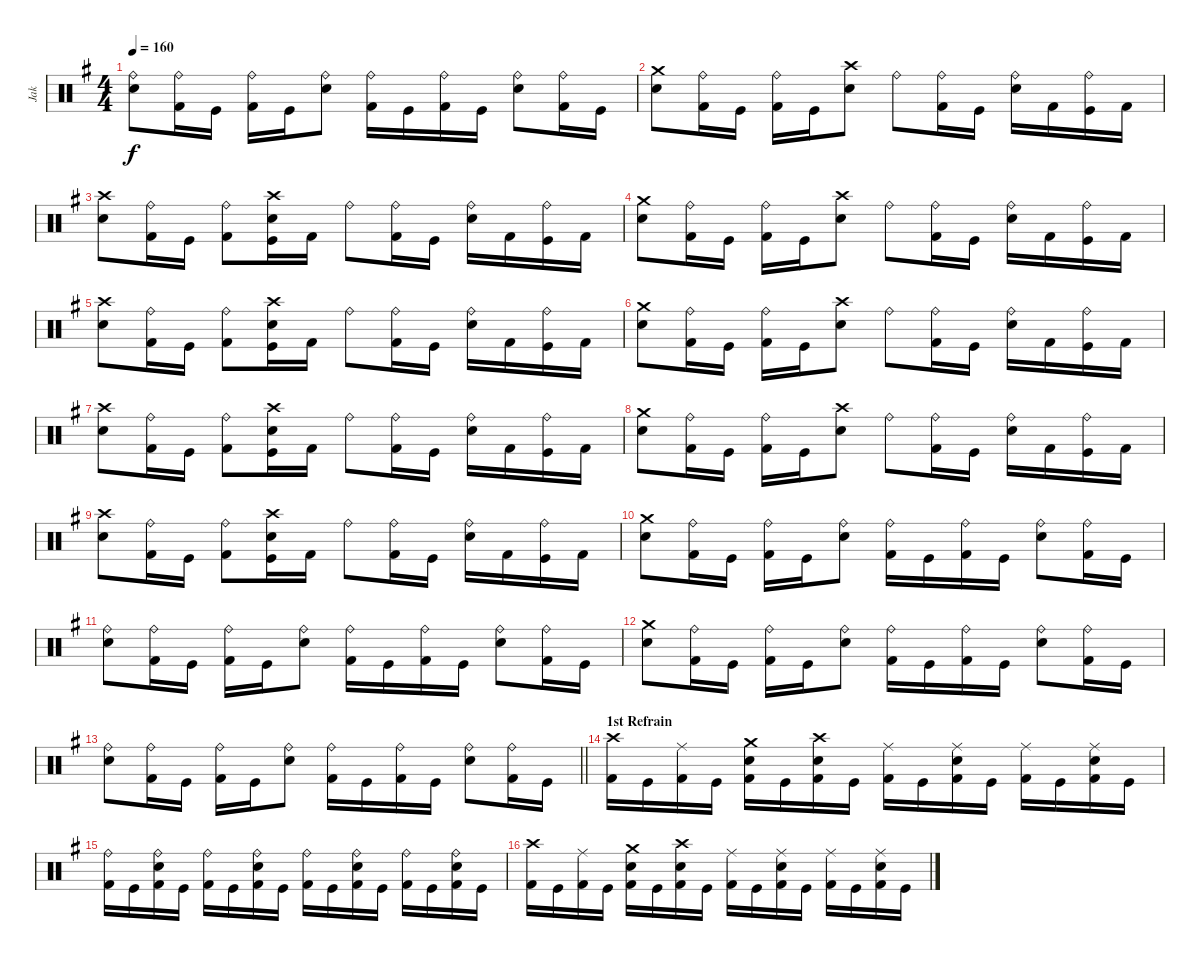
\track ("Jak" "Jak") {instrument percussion}
\staff {score}
\articulation defaults
\ts (4 4)
\tempo 160
\clef neutral
\ks eminor
("Ride (bell)" "Snare (hit) 2").8{dy f} ("Ride (bell)" "Kick (hit) 2").16 "Kick (hit)".16 ("Ride (bell)" "Kick (hit) 2").16 "Kick (hit)".16 ("Ride (bell)" "Snare (hit) 2").8 ("Ride (bell)" "Kick (hit) 2").16 "Kick (hit)".16 ("Ride (bell)" "Kick (hit) 2").16 "Kick (hit)".16 ("Ride (bell)" "Snare (hit) 2").8 ("Ride (bell)" "Kick (hit) 2").16 "Kick (hit)".16 |
("Crash medium (hit)" "Snare (hit) 2").8 ("Ride (bell)" "Kick (hit) 2").16 "Kick (hit)".16 ("Ride (bell)" "Kick (hit) 2").16 "Kick (hit)".16 ("Crash high (hit)" "Snare (hit) 2").8 "Ride (bell)".8 ("Ride (bell)" "Kick (hit) 2").16 "Kick (hit)".16 ("Ride (bell)" "Snare (hit) 2").16 "Kick (hit) 2".16 ("Ride (bell)" "Kick (hit)").16 "Kick (hit) 2".16 |
("Crash high (hit)" "Snare (hit) 2").8 ("Ride (bell)" "Kick (hit) 2").16 "Kick (hit)".16 ("Ride (bell)" "Kick (hit) 2").8 ("Crash high (hit)" "Snare (hit) 2" "Kick (hit)").16 "Kick (hit) 2".16 "Ride (bell)".8 ("Ride (bell)" "Kick (hit) 2").16 "Kick (hit)".16 ("Ride (bell)" "Snare (hit) 2").16 "Kick (hit) 2".16 ("Ride (bell)" "Kick (hit)").16 "Kick (hit) 2".16 |
("Crash medium (hit)" "Snare (hit) 2").8 ("Ride (bell)" "Kick (hit) 2").16 "Kick (hit)".16 ("Ride (bell)" "Kick (hit) 2").16 "Kick (hit)".16 ("Crash high (hit)" "Snare (hit) 2").8 "Ride (bell)".8 ("Ride (bell)" "Kick (hit) 2").16 "Kick (hit)".16 ("Ride (bell)" "Snare (hit) 2").16 "Kick (hit) 2".16 ("Ride (bell)" "Kick (hit)").16 "Kick (hit) 2".16 |
("Crash high (hit)" "Snare (hit) 2").8 ("Ride (bell)" "Kick (hit) 2").16 "Kick (hit)".16 ("Ride (bell)" "Kick (hit) 2").8 ("Crash high (hit)" "Snare (hit) 2" "Kick (hit)").16 "Kick (hit) 2".16 "Ride (bell)".8 ("Ride (bell)" "Kick (hit) 2").16 "Kick (hit)".16 ("Ride (bell)" "Snare (hit) 2").16 "Kick (hit) 2".16 ("Ride (bell)" "Kick (hit)").16 "Kick (hit) 2".16 |
("Crash medium (hit)" "Snare (hit) 2").8 ("Ride (bell)" "Kick (hit) 2").16 "Kick (hit)".16 ("Ride (bell)" "Kick (hit) 2").16 "Kick (hit)".16 ("Crash high (hit)" "Snare (hit) 2").8 "Ride (bell)".8 ("Ride (bell)" "Kick (hit) 2").16 "Kick (hit)".16 ("Ride (bell)" "Snare (hit) 2").16 "Kick (hit) 2".16 ("Ride (bell)" "Kick (hit)").16 "Kick (hit) 2".16 |
("Crash high (hit)" "Snare (hit) 2").8 ("Ride (bell)" "Kick (hit) 2").16 "Kick (hit)".16 ("Ride (bell)" "Kick (hit) 2").8 ("Crash high (hit)" "Snare (hit) 2" "Kick (hit)").16 "Kick (hit) 2".16 "Ride (bell)".8 ("Ride (bell)" "Kick (hit) 2").16 "Kick (hit)".16 ("Ride (bell)" "Snare (hit) 2").16 "Kick (hit) 2".16 ("Ride (bell)" "Kick (hit)").16 "Kick (hit) 2".16 |
("Crash medium (hit)" "Snare (hit) 2").8 ("Ride (bell)" "Kick (hit) 2").16 "Kick (hit)".16 ("Ride (bell)" "Kick (hit) 2").16 "Kick (hit)".16 ("Crash high (hit)" "Snare (hit) 2").8 "Ride (bell)".8 ("Ride (bell)" "Kick (hit) 2").16 "Kick (hit)".16 ("Ride (bell)" "Snare (hit) 2").16 "Kick (hit) 2".16 ("Ride (bell)" "Kick (hit)").16 "Kick (hit) 2".16 |
("Crash high (hit)" "Snare (hit) 2").8 ("Ride (bell)" "Kick (hit) 2").16 "Kick (hit)".16 ("Ride (bell)" "Kick (hit) 2").8 ("Crash high (hit)" "Snare (hit) 2" "Kick (hit)").16 "Kick (hit) 2".16 "Ride (bell)".8 ("Ride (bell)" "Kick (hit) 2").16 "Kick (hit)".16 ("Ride (bell)" "Snare (hit) 2").16 "Kick (hit) 2".16 ("Ride (bell)" "Kick (hit)").16 "Kick (hit) 2".16 |
("Crash medium (hit)" "Snare (hit) 2").8 ("Ride (bell)" "Kick (hit) 2").16 "Kick (hit)".16 ("Ride (bell)" "Kick (hit) 2").16 "Kick (hit)".16 ("Ride (bell)" "Snare (hit) 2").8 ("Ride (bell)" "Kick (hit) 2").16 "Kick (hit)".16 ("Ride (bell)" "Kick (hit) 2").16 "Kick (hit)".16 ("Ride (bell)" "Snare (hit) 2").8 ("Ride (bell)" "Kick (hit) 2").16 "Kick (hit)".16 |
("Ride (bell)" "Snare (hit) 2").8 ("Ride (bell)" "Kick (hit) 2").16 "Kick (hit)".16 ("Ride (bell)" "Kick (hit) 2").16 "Kick (hit)".16 ("Ride (bell)" "Snare (hit) 2").8 ("Ride (bell)" "Kick (hit) 2").16 "Kick (hit)".16 ("Ride (bell)" "Kick (hit) 2").16 "Kick (hit)".16 ("Ride (bell)" "Snare (hit) 2").8 ("Ride (bell)" "Kick (hit) 2").16 "Kick (hit)".16 |
("Crash medium (hit)" "Snare (hit) 2").8 ("Ride (bell)" "Kick (hit) 2").16 "Kick (hit)".16 ("Ride (bell)" "Kick (hit) 2").16 "Kick (hit)".16 ("Ride (bell)" "Snare (hit) 2").8 ("Ride (bell)" "Kick (hit) 2").16 "Kick (hit)".16 ("Ride (bell)" "Kick (hit) 2").16 "Kick (hit)".16 ("Ride (bell)" "Snare (hit) 2").8 ("Ride (bell)" "Kick (hit) 2").16 "Kick (hit)".16 |
\barLineRight lightlight
("Ride (bell)" "Snare (hit) 2").8 ("Ride (bell)" "Kick (hit) 2").16 "Kick (hit)".16 ("Ride (bell)" "Kick (hit) 2").16 "Kick (hit)".16 ("Ride (bell)" "Snare (hit) 2").8 ("Ride (bell)" "Kick (hit) 2").16 "Kick (hit)".16 ("Ride (bell)" "Kick (hit) 2").16 "Kick (hit)".16 ("Ride (bell)" "Snare (hit) 2").8 ("Ride (bell)" "Kick (hit) 2").16 "Kick (hit)".16 |
\section ("" "1st Refrain")
("Crash high (hit)" "Kick (hit) 2").16 "Kick (hit)".16 ("Ride (middle)" "Kick (hit) 2").16 "Kick (hit)".16 ("Crash medium (hit)" "Snare (hit) 2" "Kick (hit) 2").16 "Kick (hit)".16 ("Crash high (hit)" "Snare (hit) 2" "Kick (hit) 2").16 "Kick (hit)".16 ("Ride (middle)" "Kick (hit) 2").16 "Kick (hit)".16 ("Ride (middle)" "Snare (hit) 2" "Kick (hit) 2").16 "Kick (hit)".16 ("Ride (middle)" "Kick (hit) 2").16 "Kick (hit)".16 ("Ride (middle)" "Snare (hit) 2" "Kick (hit) 2").16 "Kick (hit)".16 |
("Ride (bell)" "Kick (hit) 2").16 "Kick (hit)".16 ("Ride (bell)" "Snare (hit) 2" "Kick (hit) 2").16 "Kick (hit)".16 ("Ride (bell)" "Kick (hit) 2").16 "Kick (hit)".16 ("Ride (bell)" "Snare (hit) 2" "Kick (hit) 2").16 "Kick (hit)".16 ("Ride (bell)" "Kick (hit) 2").16 "Kick (hit)".16 ("Ride (bell)" "Snare (hit) 2" "Kick (hit) 2").16 "Kick (hit)".16 ("Ride (bell)" "Kick (hit) 2").16 "Kick (hit)".16 ("Ride (bell)" "Snare (hit) 2" "Kick (hit) 2").16 "Kick (hit)".16 |
("Crash high (hit)" "Kick (hit) 2").16 "Kick (hit)".16 ("Ride (middle)" "Kick (hit) 2").16 "Kick (hit)".16 ("Crash medium (hit)" "Snare (hit) 2" "Kick (hit) 2").16 "Kick (hit)".16 ("Crash high (hit)" "Snare (hit) 2" "Kick (hit) 2").16 "Kick (hit)".16 ("Ride (middle)" "Kick (hit) 2").16 "Kick (hit)".16 ("Ride (middle)" "Snare (hit) 2" "Kick (hit) 2").16 "Kick (hit)".16 ("Ride (middle)" "Kick (hit) 2").16 "Kick (hit)".16 ("Ride (middle)" "Snare (hit) 2" "Kick (hit) 2").16 "Kick (hit)".16
